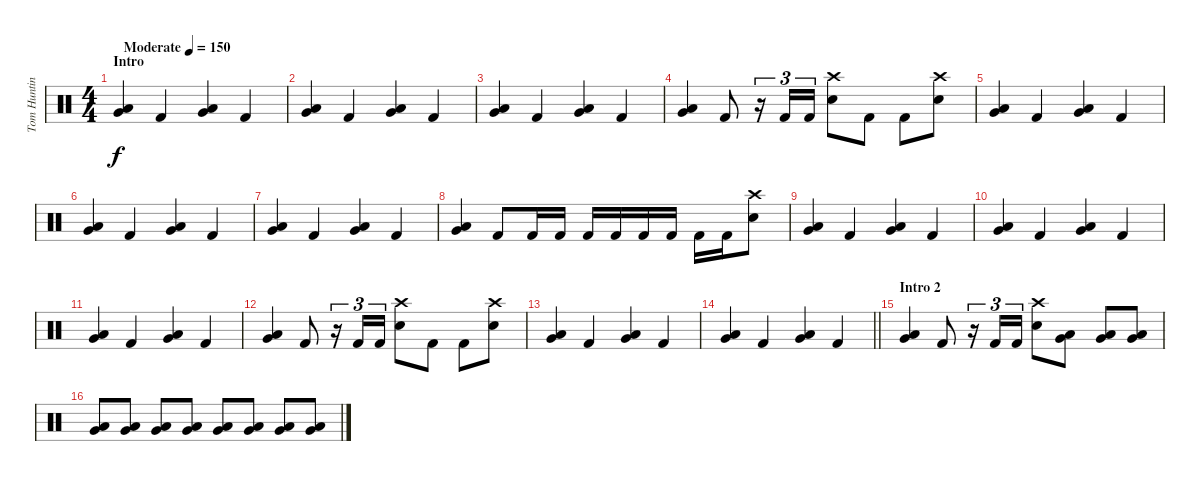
\track ("Tom Hunting" "Tom Huntin") {instrument percussion}
\staff {score}
\articulation defaults
\ts (4 4)
\section ("" "Intro ")
\tempo (150 "Moderate")
\clef neutral
\ks c
("Very Low Tom (hit)" "Low Floor Tom (hit)").4{dy f} "Kick (hit) 2".4 ("Low Tom (hit)" "Very Low Tom (hit)").4 "Kick (hit) 2".4 |
("Very Low Tom (hit)" "Low Floor Tom (hit)").4 "Kick (hit) 2".4 ("Low Tom (hit)" "Very Low Tom (hit)").4 "Kick (hit) 2".4 |
("Very Low Tom (hit)" "Low Floor Tom (hit)").4 "Kick (hit) 2".4 ("Low Tom (hit)" "Very Low Tom (hit)").4 "Kick (hit) 2".4 |
("Very Low Tom (hit)" "Low Floor Tom (hit)").4 "Kick (hit) 2".8 r.16{tu (3 2)} "Kick (hit) 2".16{tu (3 2)} "Kick (hit) 2".16{tu (3 2)} ("Crash high (hit)" "Snare (hit) 2").8 "Kick (hit) 2".8 "Kick (hit) 2".8 ("Crash high (hit)" "Snare (hit) 2").8 |
("Very Low Tom (hit)" "Low Floor Tom (hit)").4 "Kick (hit) 2".4 ("Low Tom (hit)" "Very Low Tom (hit)").4 "Kick (hit) 2".4 |
("Very Low Tom (hit)" "Low Floor Tom (hit)").4 "Kick (hit) 2".4 ("Low Tom (hit)" "Very Low Tom (hit)").4 "Kick (hit) 2".4 |
("Very Low Tom (hit)" "Low Floor Tom (hit)").4 "Kick (hit) 2".4 ("Low Tom (hit)" "Very Low Tom (hit)").4 "Kick (hit) 2".4 |
("Very Low Tom (hit)" "Low Floor Tom (hit)").4 "Kick (hit) 2".8 "Kick (hit) 2".16 "Kick (hit) 2".16 "Kick (hit) 2".16 "Kick (hit) 2".16 "Kick (hit) 2".16 "Kick (hit) 2".16 "Kick (hit) 2".16 "Kick (hit) 2".16 ("Crash high (hit)" "Snare (hit) 2").8 |
("Very Low Tom (hit)" "Low Floor Tom (hit)").4 "Kick (hit) 2".4 ("Low Tom (hit)" "Very Low Tom (hit)").4 "Kick (hit) 2".4 |
("Very Low Tom (hit)" "Low Floor Tom (hit)").4 "Kick (hit) 2".4 ("Low Tom (hit)" "Very Low Tom (hit)").4 "Kick (hit) 2".4 |
("Very Low Tom (hit)" "Low Floor Tom (hit)").4 "Kick (hit) 2".4 ("Low Tom (hit)" "Very Low Tom (hit)").4 "Kick (hit) 2".4 |
("Very Low Tom (hit)" "Low Floor Tom (hit)").4 "Kick (hit) 2".8 r.16{tu (3 2)} "Kick (hit) 2".16{tu (3 2)} "Kick (hit) 2".16{tu (3 2)} ("Crash high (hit)" "Snare (hit) 2").8 "Kick (hit) 2".8 "Kick (hit) 2".8 ("Crash high (hit)" "Snare (hit) 2").8 |
("Low Tom (hit)" "Very Low Tom (hit)").4 "Kick (hit) 2".4 ("Very Low Tom (hit)" "Low Floor Tom (hit)").4 "Kick (hit) 2".4 |
\barLineRight lightlight
("Low Tom (hit)" "Very Low Tom (hit)").4 "Kick (hit) 2".4 ("Very Low Tom (hit)" "Low Floor Tom (hit)").4 "Kick (hit) 2".4 |
\section ("" "Intro 2")
("Low Tom (hit)" "Very Low Tom (hit)").4 "Kick (hit) 2".8 r.16{tu (3 2)} "Kick (hit) 2".16{tu (3 2)} "Kick (hit) 2".16{tu (3 2)} ("Crash high (hit)" "Snare (hit) 2").8 ("Low Tom (hit)" "Very Low Tom (hit)").8 ("Low Tom (hit)" "Very Low Tom (hit)").8 ("Low Tom (hit)" "Very Low Tom (hit)").8 |
("Low Tom (hit)" "Very Low Tom (hit)").8 ("Low Tom (hit)" "Very Low Tom (hit)").8 ("Low Tom (hit)" "Very Low Tom (hit)").8 ("Low Tom (hit)" "Very Low Tom (hit)").8 ("Low Tom (hit)" "Very Low Tom (hit)").8 ("Low Tom (hit)" "Very Low Tom (hit)").8 ("Low Tom (hit)" "Very Low Tom (hit)").8 ("Low Tom (hit)" "Very Low Tom (hit)").8
